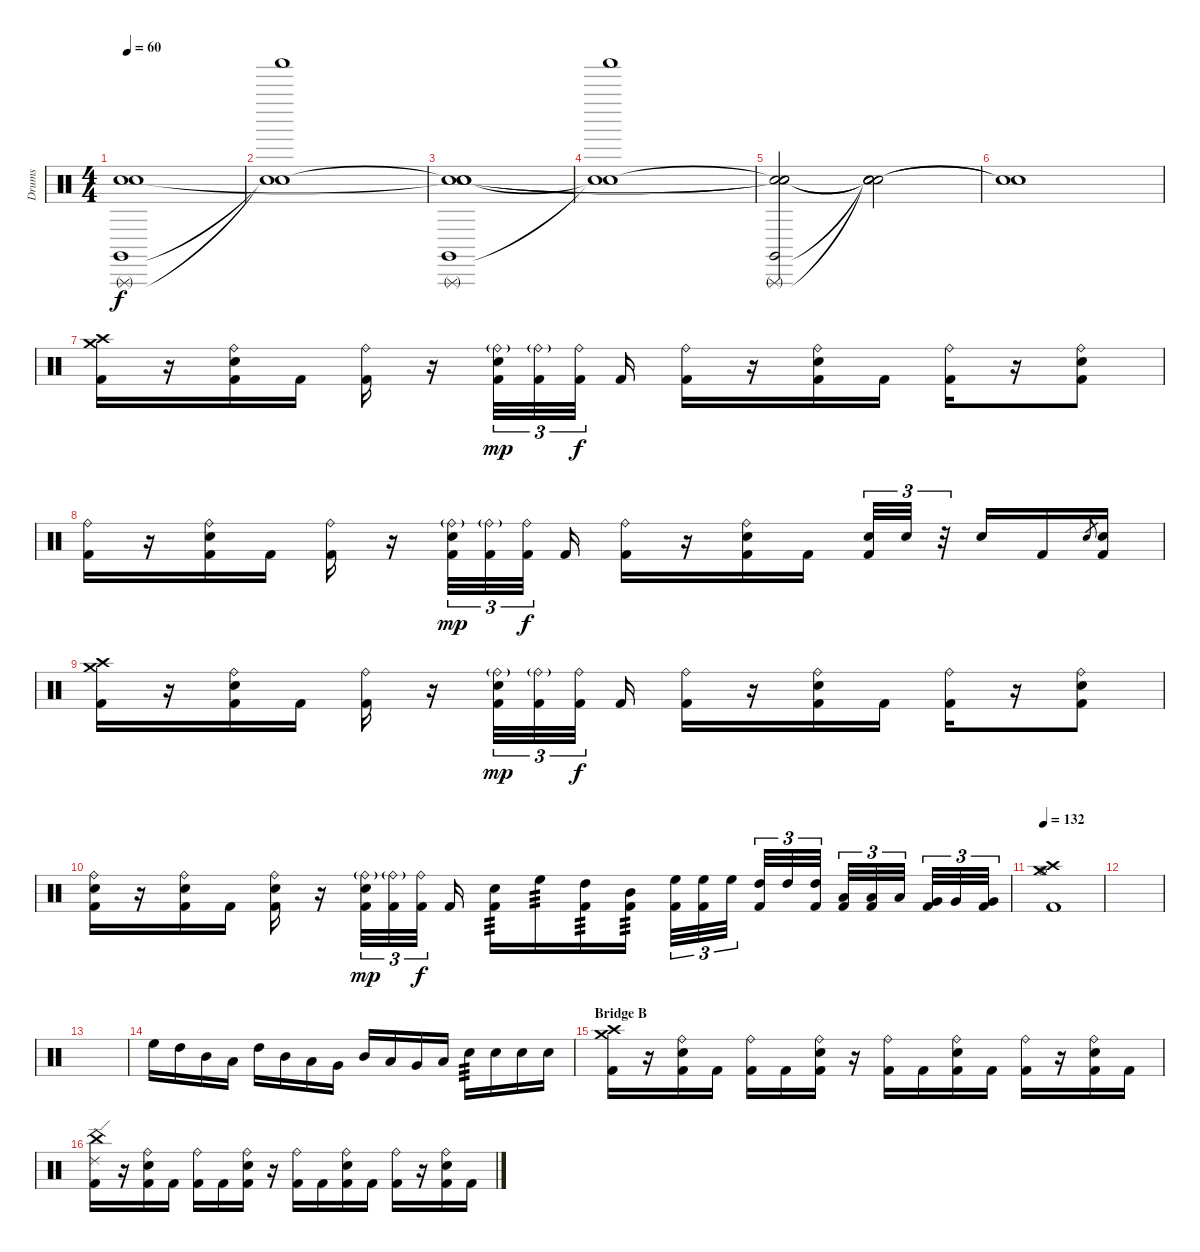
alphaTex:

\track ("Drums" "Drums") {instrument percussion}
\staff {score}
\articulation defaults
\ts (4 4)
\tempo 60
\clef neutral
\ks c
("Claves (hit)" "Snare (hit)"{t} "Triangle (rnute)" "Snare (hit)").1{dy f} |
("Snare (hit)"{t} "Shaker (hit)" "Snare (hit)"{t}).1 |
("Claves (hit)" "Triangle (rnute)" "Snare (hit)"{t} "Snare (hit)"{t} "Snare (hit)").1 |
("Snare (hit)"{t} "Shaker (hit)" "Snare (hit)"{t}).1 |
("Claves (hit)" "Triangle (rnute)" "Snare (hit)"{t} "Snare (hit)"{t} "Snare (hit)"{t}).2 ("Snare (hit)"{t} "Snare (hit)"{t} "Snare (hit)"{t} "Snare (hit)"{t}).2 |
("Snare (hit)"{t} "Snare (hit)"{t}).1 |
("Crash medium (hit)" "Crash high (hit)" "Kick (hit) 2").16 r.16 ("Ride (bell)" "Snare (hit) 2" "Kick (hit) 2").16 "Kick (hit) 2".16 ("Ride (bell)" "Kick (hit) 2").16 r.16 ("Ride (bell)"{g} "Snare (hit) 2" "Kick (hit) 2").32{tu (3 2) dy mp} ("Ride (bell)"{g} "Kick (hit) 2").32{tu (3 2)} ("Ride (bell)" "Kick (hit) 2").32{tu (3 2) dy f} "Kick (hit) 2".16 ("Ride (bell)" "Kick (hit) 2").16 r.16 ("Ride (bell)" "Snare (hit) 2" "Kick (hit) 2").16 "Kick (hit) 2".16 ("Ride (bell)" "Kick (hit) 2").16 r.16 ("Ride (bell)" "Snare (hit) 2" "Kick (hit) 2").8 |
("Ride (bell)" "Kick (hit) 2").16 r.16 ("Ride (bell)" "Snare (hit) 2" "Kick (hit) 2").16 "Kick (hit) 2".16 ("Ride (bell)" "Kick (hit) 2").16 r.16 ("Ride (bell)"{g} "Snare (hit) 2" "Kick (hit) 2").32{tu (3 2) dy mp} ("Ride (bell)"{g} "Kick (hit) 2").32{tu (3 2)} ("Ride (bell)" "Kick (hit) 2").32{tu (3 2) dy f} "Kick (hit) 2".16 ("Ride (bell)" "Kick (hit) 2").16 r.16 ("Ride (bell)" "Snare (hit) 2" "Kick (hit) 2").16 "Kick (hit) 2".16 ("Snare (hit) 2" "Kick (hit) 2").32{tu (3 2)} "Snare (hit) 2".32{tu (3 2)} r.32{tu (3 2)} "Snare (hit) 2".16 "Kick (hit) 2".16 "Snare (hit) 2".8{gr} ("Snare (hit) 2" "Kick (hit) 2").16 |
("Crash medium (hit)" "Crash high (hit)" "Kick (hit) 2").16 r.16 ("Ride (bell)" "Snare (hit) 2" "Kick (hit) 2").16 "Kick (hit) 2".16 ("Ride (bell)" "Kick (hit) 2").16 r.16 ("Ride (bell)"{g} "Snare (hit) 2" "Kick (hit) 2").32{tu (3 2) dy mp} ("Ride (bell)"{g} "Kick (hit) 2").32{tu (3 2)} ("Ride (bell)" "Kick (hit) 2").32{tu (3 2) dy f} "Kick (hit) 2".16 ("Ride (bell)" "Kick (hit) 2").16 r.16 ("Ride (bell)" "Snare (hit) 2" "Kick (hit) 2").16 "Kick (hit) 2".16 ("Ride (bell)" "Kick (hit) 2").16 r.16 ("Ride (bell)" "Snare (hit) 2" "Kick (hit) 2").8 |
("Ride (bell)" "Snare (hit) 2" "Kick (hit) 2").16 r.16 ("Ride (bell)" "Snare (hit) 2" "Kick (hit) 2").16 "Kick (hit) 2".16 ("Ride (bell)" "Snare (hit) 2" "Kick (hit) 2").16 r.16 ("Ride (bell)"{g} "Snare (hit) 2" "Kick (hit) 2").32{tu (3 2) dy mp} ("Ride (bell)"{g} "Kick (hit) 2").32{tu (3 2)} ("Ride (bell)" "Kick (hit) 2").32{tu (3 2) dy f} "Kick (hit) 2".16 ("Snare (hit) 2" "Kick (hit) 2").16{tp 3} "High Floor Tom (hit)".16{tp 3} ("High Tom (hit)" "Kick (hit) 2").16{tp 3} ("Mid Tom (hit)" "Kick (hit) 2").16{tp 3} ("High Floor Tom (hit)" "Kick (hit) 2").32{tu (3 2)} ("High Floor Tom (hit)" "Kick (hit) 2").32{tu (3 2)} "High Floor Tom (hit)".32{tu (3 2)} ("High Tom (hit)" "Kick (hit) 2").32{tu (3 2)} "High Tom (hit)".32{tu (3 2)} ("High Tom (hit)" "Kick (hit) 2").32{tu (3 2)} ("Low Tom (hit)" "Kick (hit) 2").32{tu (3 2)} ("Low Tom (hit)" "Kick (hit) 2").32{tu (3 2)} "Low Tom (hit)".32{tu (3 2)} ("Very Low Tom (hit)" "Kick (hit) 2").32{tu (3 2)} "Very Low Tom (hit)".32{tu (3 2)} ("Very Low Tom (hit)" "Kick (hit) 2").32{tu (3 2)} |
\tempo 132
("Crash high (hit)" "Crash medium (hit)" "Hi-Hat (open)" "Kick (hit) 2").1 |
|
|
"High Floor Tom (hit)".16 "High Tom (hit)".16 "Mid Tom (hit)".16 "Low Tom (hit)".16 "High Tom (hit)".16 "Mid Tom (hit)".16 "Low Tom (hit)".16 "Very Low Tom (hit)".16 "Mid Tom (hit)".16 "Low Tom (hit)".16 "Very Low Tom (hit)".16 "Low Floor Tom (hit)".16 "Snare (hit) 2".16{tp 3} "Snare (hit) 2".16 "Snare (hit) 2".16 "Snare (hit) 2".16 |
\section ("" "Bridge B")
("Crash medium (hit)" "Crash high (hit)" "Kick (hit) 2").16 r.16 ("Ride (bell)" "Electric Snare (hit)" "Kick (hit) 2").16 "Kick (hit) 2".16 ("Ride (bell)" "Kick (hit) 2").16 "Kick (hit) 2".16 ("Ride (bell)" "Electric Snare (hit)" "Kick (hit) 2").16 r.16 ("Ride (bell)" "Kick (hit) 2").16 "Kick (hit) 2".16 ("Ride (bell)" "Electric Snare (hit)" "Kick (hit) 2").16 "Kick (hit) 2".16 ("Ride (bell)" "Kick (hit) 2").16 r.16 ("Ride (bell)" "Electric Snare (hit)" "Kick (hit) 2").16 "Kick (hit) 2".16 |
("Ride (edge) 2" "China (hit)" "Kick (hit) 2").16 r.16 ("Ride (bell)" "Electric Snare (hit)" "Kick (hit) 2").16 "Kick (hit) 2".16 ("Ride (bell)" "Kick (hit) 2").16 "Kick (hit) 2".16 ("Ride (bell)" "Electric Snare (hit)" "Kick (hit) 2").16 r.16 ("Ride (bell)" "Kick (hit) 2").16 "Kick (hit) 2".16 ("Ride (bell)" "Electric Snare (hit)" "Kick (hit) 2").16 "Kick (hit) 2".16 ("Ride (bell)" "Kick (hit) 2").16 r.16 ("Ride (bell)" "Electric Snare (hit)" "Kick (hit) 2").16 "Kick (hit) 2".16
